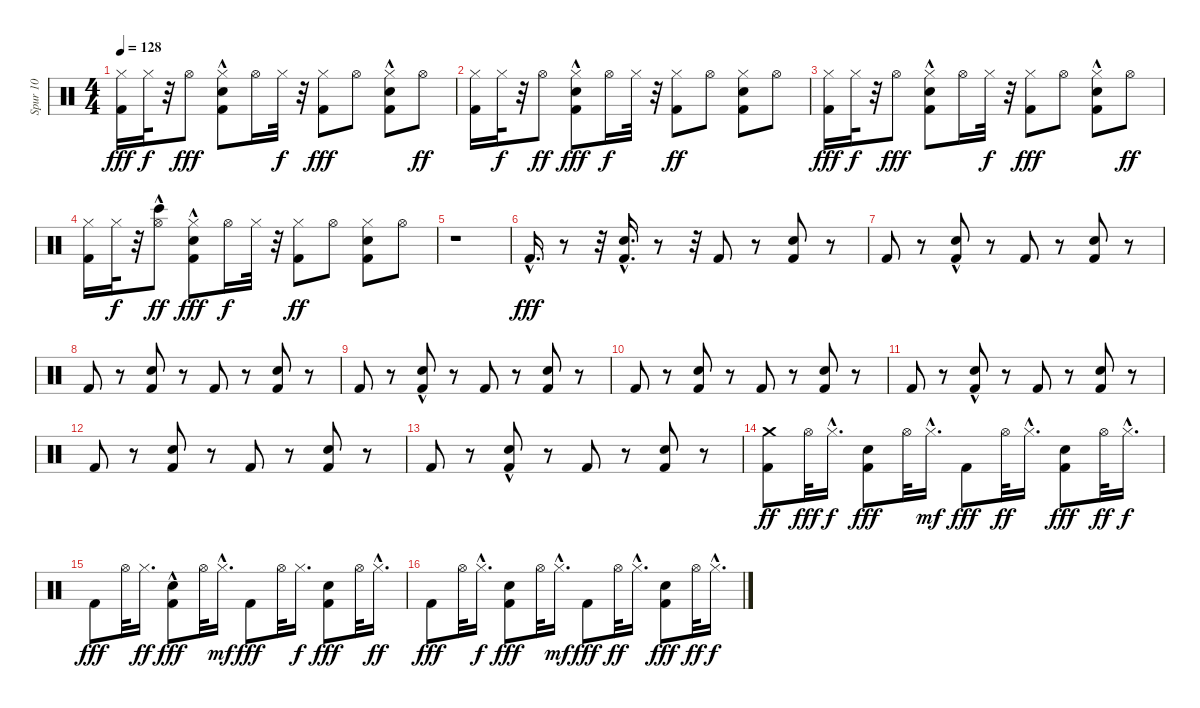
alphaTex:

\track ("Spur 10" "Spur 10") {instrument percussion}
\staff {score}
\articulation defaults
\ts (4 4)
\tempo 128
\clef neutral
\ks c
("Kick (hit) 2" "Hi-Hat (closed)").16{dy fff} "Hi-Hat (closed)".32{dy f} r.32 "Hi-Hat (open)".8{dy fff} ("Kick (hit) 2"{hac} "Hi-Hat (closed)" "Hand Clap (hit)").8 "Hi-Hat (open)".16 "Hi-Hat (closed)".32{dy f} r.32 ("Hi-Hat (closed)" "Kick (hit) 2").8{dy fff} "Hi-Hat (open)".8 ("Hi-Hat (closed)" "Hand Clap (hit)" "Kick (hit) 2"{hac}).8 "Hi-Hat (open)".8{dy ff} |
("Kick (hit) 2" "Hi-Hat (closed)").16 "Hi-Hat (closed)".32{dy f} r.32 "Hi-Hat (open)".8{dy ff} ("Hand Clap (hit)" "Hi-Hat (closed)" "Kick (hit) 2"{hac}).8{dy fff} "Hi-Hat (open)".16{dy f} "Hi-Hat (closed)".32 r.32 ("Kick (hit) 2" "Hi-Hat (closed)").8{dy ff} "Hi-Hat (open)".8 ("Kick (hit) 2" "Hand Clap (hit)" "Hi-Hat (closed)").8 "Hi-Hat (open)".8 |
("Kick (hit) 2" "Hi-Hat (closed)").16{dy fff} "Hi-Hat (closed)".32{dy f} r.32 "Hi-Hat (open)".8{dy fff} ("Kick (hit) 2"{hac} "Hi-Hat (closed)" "Hand Clap (hit)").8 "Hi-Hat (open)".16 "Hi-Hat (closed)".32{dy f} r.32 ("Hi-Hat (closed)" "Kick (hit) 2").8{dy fff} "Hi-Hat (open)".8 ("Hi-Hat (closed)" "Hand Clap (hit)" "Kick (hit) 2"{hac}).8 "Hi-Hat (open)".8{dy ff} |
("Kick (hit) 2" "Hi-Hat (closed)").16 "Hi-Hat (closed)".32{dy f} r.32 ("Hi-Hat (open)" "Bongo High (hit)"{hac}).8{dy ff} ("Hand Clap (hit)" "Hi-Hat (closed)" "Kick (hit) 2"{hac}).8{dy fff} "Hi-Hat (open)".16{dy f} "Hi-Hat (closed)".32 r.32 ("Kick (hit) 2" "Hi-Hat (closed)").8{dy ff} "Hi-Hat (open)".8 ("Kick (hit) 2" "Hand Clap (hit)" "Hi-Hat (closed)").8 "Hi-Hat (open)".8 |
r.1 |
"Kick (hit) 2"{hac}.16{d dy fff} r.8 r.32 ("Hand Clap (hit)"{hac} "Kick (hit) 2"{hac}).16{d} r.8 r.32 "Kick (hit) 2".8 r.8 ("Hand Clap (hit)" "Kick (hit) 2").8 r.8 |
"Kick (hit) 2".8 r.8 ("Hand Clap (hit)"{hac} "Kick (hit) 2").8 r.8 "Kick (hit) 2".8 r.8 ("Hand Clap (hit)" "Kick (hit) 2").8 r.8 |
"Kick (hit) 2".8 r.8 ("Hand Clap (hit)" "Kick (hit) 2").8 r.8 "Kick (hit) 2".8 r.8 ("Hand Clap (hit)" "Kick (hit) 2").8 r.8 |
"Kick (hit) 2".8 r.8 ("Hand Clap (hit)"{hac} "Kick (hit) 2").8 r.8 "Kick (hit) 2".8 r.8 ("Hand Clap (hit)" "Kick (hit) 2").8 r.8 |
"Kick (hit) 2".8 r.8 ("Hand Clap (hit)" "Kick (hit) 2").8 r.8 "Kick (hit) 2".8 r.8 ("Hand Clap (hit)" "Kick (hit) 2").8 r.8 |
"Kick (hit) 2".8 r.8 ("Hand Clap (hit)"{hac} "Kick (hit) 2").8 r.8 "Kick (hit) 2".8 r.8 ("Hand Clap (hit)" "Kick (hit) 2").8 r.8 |
"Kick (hit) 2".8 r.8 ("Hand Clap (hit)" "Kick (hit) 2").8 r.8 "Kick (hit) 2".8 r.8 ("Hand Clap (hit)" "Kick (hit) 2").8 r.8 |
"Kick (hit) 2".8 r.8 ("Hand Clap (hit)"{hac} "Kick (hit) 2").8 r.8 "Kick (hit) 2".8 r.8 ("Hand Clap (hit)" "Kick (hit) 2").8 r.8 |
("Kick (hit) 2" "Crash medium (hit)").8{dy ff} "Hi-Hat (open)".32{dy fff} "Hi-Hat (closed)"{hac}.16{d dy f} ("Hand Clap (hit)" "Kick (hit) 2").8{dy fff} "Hi-Hat (open)".32 "Hi-Hat (closed)"{hac}.16{d dy mf} "Kick (hit) 2".8{dy fff} "Hi-Hat (open)".32{dy ff} "Hi-Hat (closed)"{hac}.16{d} ("Hand Clap (hit)" "Kick (hit) 2").8{dy fff} "Hi-Hat (open)".32{dy ff} "Hi-Hat (closed)"{hac}.16{d dy f} |
"Kick (hit) 2".8{dy fff} "Hi-Hat (open)".32 "Hi-Hat (closed)".16{d dy ff} ("Hand Clap (hit)"{hac} "Kick (hit) 2").8{dy fff} "Hi-Hat (open)".32 "Hi-Hat (closed)"{hac}.16{d dy mf} "Kick (hit) 2".8{dy fff} "Hi-Hat (open)".32 "Hi-Hat (closed)".16{d dy f} ("Hand Clap (hit)" "Kick (hit) 2").8{dy fff} "Hi-Hat (open)".32 "Hi-Hat (closed)"{hac}.16{d dy ff} |
"Kick (hit) 2".8{dy fff} "Hi-Hat (open)".32 "Hi-Hat (closed)"{hac}.16{d dy f} ("Hand Clap (hit)" "Kick (hit) 2").8{dy fff} "Hi-Hat (open)".32 "Hi-Hat (closed)"{hac}.16{d dy mf} "Kick (hit) 2".8{dy fff} "Hi-Hat (open)".32{dy ff} "Hi-Hat (closed)"{hac}.16{d} ("Hand Clap (hit)" "Kick (hit) 2").8{dy fff} "Hi-Hat (open)".32{dy ff} "Hi-Hat (closed)"{hac}.16{d dy f}
